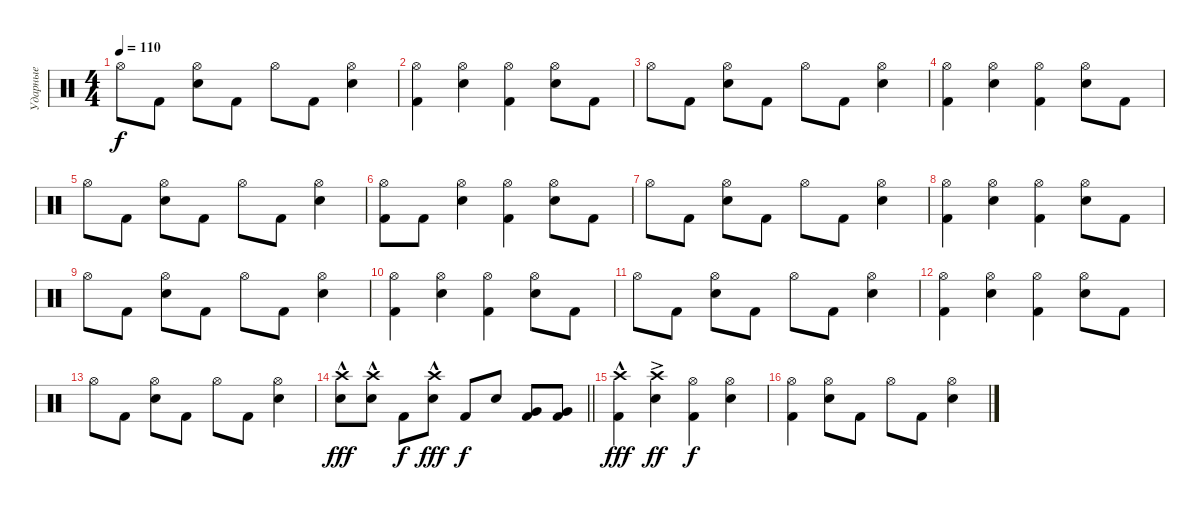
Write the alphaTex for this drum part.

\track ("Ударные" "Ударные") {instrument percussion}
\staff {score}
\articulation defaults
\ts (4 4)
\tempo 110
\clef neutral
\ks c "Hi-Hat (open)".8{dy f} "Kick (hit) 2".8
("Snare (hit) 2" "Hi-Hat (open)").8 "Kick (hit) 2".8 "Hi-Hat (open)".8 "Kick (hit) 2".8 ("Snare (hit) 2" "Hi-Hat (open)").4 |
("Kick (hit) 2" "Hi-Hat (open)").4 ("Snare (hit) 2" "Hi-Hat (open)").4 ("Kick (hit) 2" "Hi-Hat (open)").4 ("Snare (hit) 2" "Hi-Hat (open)").8 "Kick (hit) 2".8 |
"Hi-Hat (open)".8 "Kick (hit) 2".8 ("Snare (hit) 2" "Hi-Hat (open)").8 "Kick (hit) 2".8 "Hi-Hat (open)".8 "Kick (hit) 2".8 ("Snare (hit) 2" "Hi-Hat (open)").4 |
("Kick (hit) 2" "Hi-Hat (open)").4 ("Snare (hit) 2" "Hi-Hat (open)").4 ("Kick (hit) 2" "Hi-Hat (open)").4 ("Snare (hit) 2" "Hi-Hat (open)").8 "Kick (hit) 2".8 |
"Hi-Hat (open)".8 "Kick (hit) 2".8 ("Snare (hit) 2" "Hi-Hat (open)").8 "Kick (hit) 2".8 "Hi-Hat (open)".8 "Kick (hit) 2".8 ("Snare (hit) 2" "Hi-Hat (open)").4 |
("Kick (hit) 2" "Hi-Hat (open)").8 "Kick (hit) 2".8 ("Snare (hit) 2" "Hi-Hat (open)").4 ("Kick (hit) 2" "Hi-Hat (open)").4 ("Snare (hit) 2" "Hi-Hat (open)").8 "Kick (hit) 2".8 |
"Hi-Hat (open)".8 "Kick (hit) 2".8 ("Snare (hit) 2" "Hi-Hat (open)").8 "Kick (hit) 2".8 "Hi-Hat (open)".8 "Kick (hit) 2".8 ("Snare (hit) 2" "Hi-Hat (open)").4 |
("Kick (hit) 2" "Hi-Hat (open)").4 ("Snare (hit) 2" "Hi-Hat (open)").4 ("Kick (hit) 2" "Hi-Hat (open)").4 ("Snare (hit) 2" "Hi-Hat (open)").8 "Kick (hit) 2".8 |
"Hi-Hat (open)".8 "Kick (hit) 2".8 ("Snare (hit) 2" "Hi-Hat (open)").8 "Kick (hit) 2".8 "Hi-Hat (open)".8 "Kick (hit) 2".8 ("Snare (hit) 2" "Hi-Hat (open)").4 |
("Kick (hit) 2" "Hi-Hat (open)").4 ("Snare (hit) 2" "Hi-Hat (open)").4 ("Kick (hit) 2" "Hi-Hat (open)").4 ("Snare (hit) 2" "Hi-Hat (open)").8 "Kick (hit) 2".8 |
"Hi-Hat (open)".8 "Kick (hit) 2".8 ("Snare (hit) 2" "Hi-Hat (open)").8 "Kick (hit) 2".8 "Hi-Hat (open)".8 "Kick (hit) 2".8 ("Snare (hit) 2" "Hi-Hat (open)").4 |
("Kick (hit) 2" "Hi-Hat (open)").4 ("Snare (hit) 2" "Hi-Hat (open)").4 ("Kick (hit) 2" "Hi-Hat (open)").4 ("Snare (hit) 2" "Hi-Hat (open)").8 "Kick (hit) 2".8 |
"Hi-Hat (open)".8 "Kick (hit) 2".8 ("Snare (hit) 2" "Hi-Hat (open)").8 "Kick (hit) 2".8 "Hi-Hat (open)".8 "Kick (hit) 2".8 ("Snare (hit) 2" "Hi-Hat (open)").4 |
\barLineRight lightlight
("Snare (hit) 2" "Crash high (hit)"{hac}).8{dy fff} ("Snare (hit) 2" "Crash high (hit)"{hac}).8 "Kick (hit) 2".8{dy f} ("Snare (hit) 2" "Crash high (hit)"{hac}).8{dy fff} "Kick (hit) 2".8{dy f} "Snare (hit) 2".8 ("Kick (hit) 2" "Very Low Tom (hit)").8 ("Kick (hit) 2" "Very Low Tom (hit)").8 |
("Kick (hit) 2" "Crash high (hit)"{hac}).4{dy fff} ("Snare (hit) 2" "Crash high (hit)"{ac}).4{dy ff} ("Kick (hit) 2" "Hi-Hat (open)").4{dy f} ("Snare (hit) 2" "Hi-Hat (open)").4 |
("Kick (hit) 2" "Hi-Hat (open)").4 ("Snare (hit) 2" "Hi-Hat (open)").8 "Kick (hit) 2".8 "Hi-Hat (open)".8 "Kick (hit) 2".8 ("Snare (hit) 2" "Hi-Hat (open)").4
